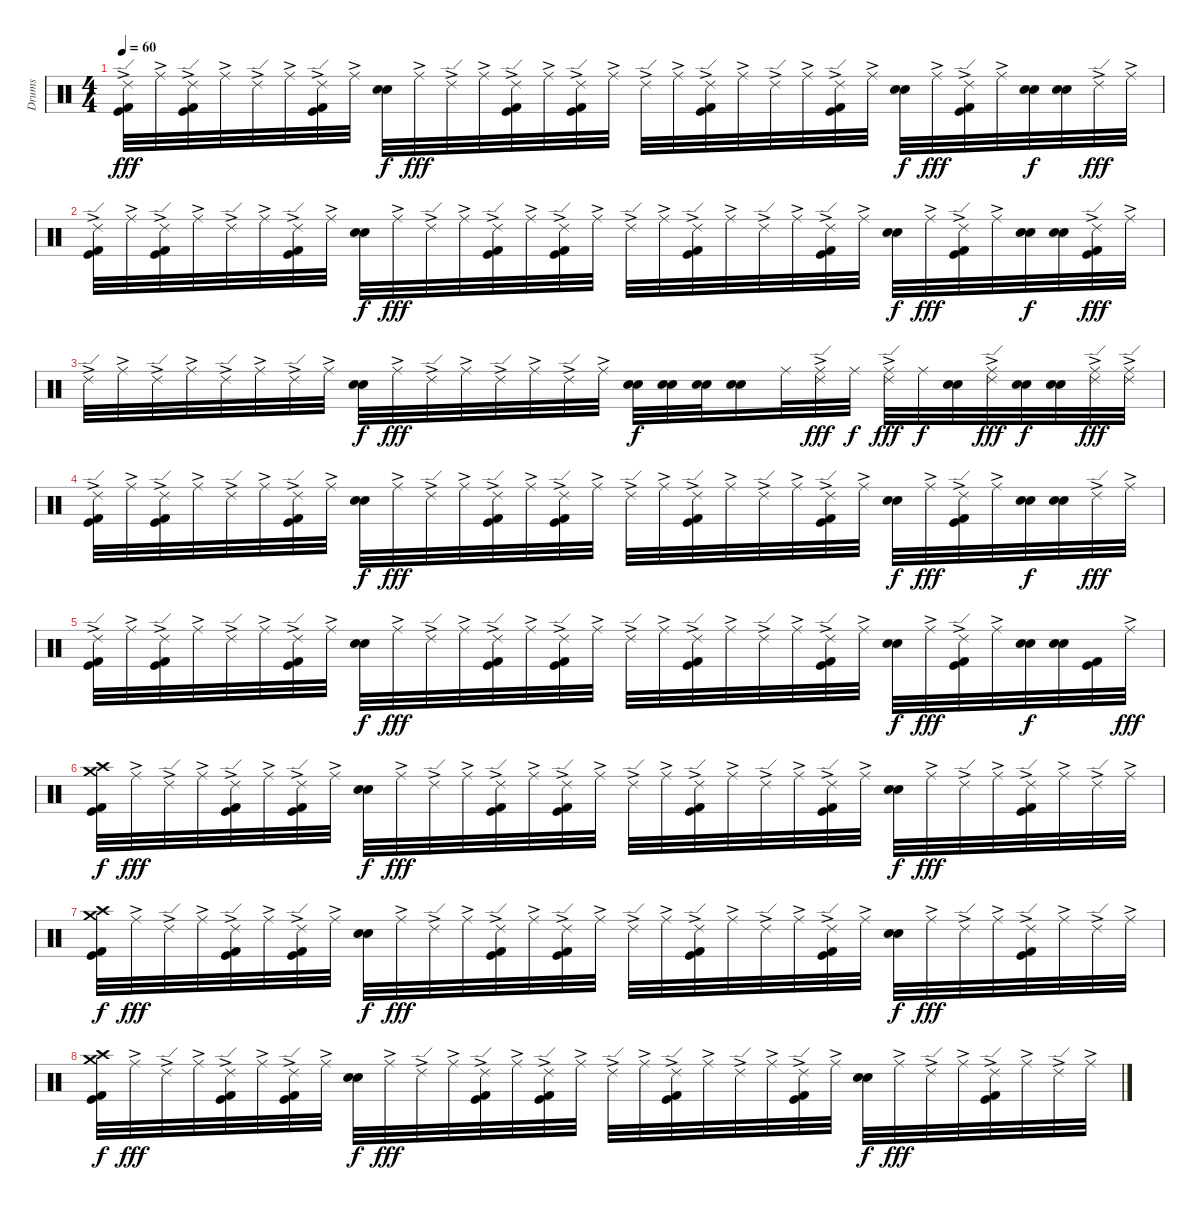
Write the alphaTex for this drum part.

\track ("Drums" "Drums") {instrument percussion}
\staff {score}
\articulation defaults
\ts (4 4)
\tempo 60
\clef neutral
\ks c
("Ride (edge) 2"{ac} "Kick (hit)" "Kick (hit) 2").32{dy fff} "Ride (middle)"{ac}.32 ("Ride (edge) 2"{ac} "Kick (hit)" "Kick (hit) 2").32 "Ride (middle)"{ac}.32 "Ride (edge) 2"{ac}.32 "Ride (middle)"{ac}.32 ("Ride (edge) 2"{ac} "Kick (hit)" "Kick (hit) 2").32 "Ride (middle)"{ac}.32 ("Snare (hit) 2" "Electric Snare (hit)").32{dy f} "Ride (middle)"{ac}.32{dy fff} "Ride (edge) 2"{ac}.32 "Ride (middle)"{ac}.32 ("Ride (edge) 2"{ac} "Kick (hit)" "Kick (hit) 2").32 "Ride (middle)"{ac}.32 ("Ride (edge) 2"{ac} "Kick (hit)" "Kick (hit) 2").32 "Ride (middle)"{ac}.32 "Ride (edge) 2"{ac}.32 "Ride (middle)"{ac}.32 ("Ride (edge) 2"{ac} "Kick (hit)" "Kick (hit) 2").32 "Ride (middle)"{ac}.32 "Ride (edge) 2"{ac}.32 "Ride (middle)"{ac}.32 ("Ride (edge) 2"{ac} "Kick (hit)" "Kick (hit) 2").32 "Ride (middle)"{ac}.32 ("Snare (hit) 2" "Electric Snare (hit)").32{dy f} "Ride (middle)"{ac}.32{dy fff} ("Ride (edge) 2"{ac} "Kick (hit)" "Kick (hit) 2").32 "Ride (middle)"{ac}.32 ("Snare (hit) 2" "Electric Snare (hit)").32{dy f} ("Snare (hit) 2" "Electric Snare (hit)").32 "Ride (edge) 2"{ac}.32{dy fff} "Ride (middle)"{ac}.32 |
("Ride (edge) 2"{ac} "Kick (hit)" "Kick (hit) 2").32 "Ride (middle)"{ac}.32 ("Ride (edge) 2"{ac} "Kick (hit)" "Kick (hit) 2").32 "Ride (middle)"{ac}.32 "Ride (edge) 2"{ac}.32 "Ride (middle)"{ac}.32 ("Ride (edge) 2"{ac} "Kick (hit)" "Kick (hit) 2").32 "Ride (middle)"{ac}.32 ("Snare (hit) 2" "Electric Snare (hit)").32{dy f} "Ride (middle)"{ac}.32{dy fff} "Ride (edge) 2"{ac}.32 "Ride (middle)"{ac}.32 ("Ride (edge) 2"{ac} "Kick (hit)" "Kick (hit) 2").32 "Ride (middle)"{ac}.32 ("Ride (edge) 2"{ac} "Kick (hit)" "Kick (hit) 2").32 "Ride (middle)"{ac}.32 "Ride (edge) 2"{ac}.32 "Ride (middle)"{ac}.32 ("Ride (edge) 2"{ac} "Kick (hit)" "Kick (hit) 2").32 "Ride (middle)"{ac}.32 "Ride (edge) 2"{ac}.32 "Ride (middle)"{ac}.32 ("Ride (edge) 2"{ac} "Kick (hit)" "Kick (hit) 2").32 "Ride (middle)"{ac}.32 ("Snare (hit) 2" "Electric Snare (hit)").32{dy f} "Ride (middle)"{ac}.32{dy fff} ("Ride (edge) 2"{ac} "Kick (hit)" "Kick (hit) 2").32 "Ride (middle)"{ac}.32 ("Snare (hit) 2" "Electric Snare (hit)").32{dy f} ("Snare (hit) 2" "Electric Snare (hit)").32 ("Ride (edge) 2"{ac} "Kick (hit)" "Kick (hit) 2").32{dy fff} "Ride (middle)"{ac}.32 |
"Ride (edge) 2"{ac}.32 "Ride (middle)"{ac}.32 "Ride (edge) 2"{ac}.32 "Ride (middle)"{ac}.32 "Ride (edge) 2"{ac}.32 "Ride (middle)"{ac}.32 "Ride (edge) 2"{ac}.32 "Ride (middle)"{ac}.32 ("Electric Snare (hit)" "Snare (hit) 2").32{dy f} "Ride (middle)"{ac}.32{dy fff} "Ride (edge) 2"{ac}.32 "Ride (middle)"{ac}.32 "Ride (edge) 2"{ac}.32 "Ride (middle)"{ac}.32 "Ride (edge) 2"{ac}.32 "Ride (middle)"{ac}.32 ("Snare (hit) 2" "Electric Snare (hit)").32{dy f} ("Snare (hit) 2" "Electric Snare (hit)").32 ("Snare (hit) 2" "Electric Snare (hit)").32 ("Snare (hit) 2" "Electric Snare (hit)").16 "Ride (middle)".32 ("Ride (edge) 2"{ac} "Ride (middle)"{ac}).32{dy fff} "Ride (middle)".32{dy f} ("Ride (edge) 2"{ac} "Ride (middle)"{ac}).32{dy fff} "Ride (middle)".32{dy f} ("Snare (hit) 2" "Electric Snare (hit)").32 ("Ride (edge) 2"{ac} "Ride (middle)"{ac}).32{dy fff} ("Snare (hit) 2" "Electric Snare (hit)").32{dy f} ("Snare (hit) 2" "Electric Snare (hit)").32 ("Ride (edge) 2"{ac} "Ride (middle)"{ac}).32{dy fff} ("Ride (edge) 2"{ac} "Ride (middle)"{ac}).32 |
("Ride (edge) 2"{ac} "Kick (hit)" "Kick (hit) 2").32 "Ride (middle)"{ac}.32 ("Ride (edge) 2"{ac} "Kick (hit)" "Kick (hit) 2").32 "Ride (middle)"{ac}.32 "Ride (edge) 2"{ac}.32 "Ride (middle)"{ac}.32 ("Ride (edge) 2"{ac} "Kick (hit)" "Kick (hit) 2").32 "Ride (middle)"{ac}.32 ("Snare (hit) 2" "Electric Snare (hit)").32{dy f} "Ride (middle)"{ac}.32{dy fff} "Ride (edge) 2"{ac}.32 "Ride (middle)"{ac}.32 ("Ride (edge) 2"{ac} "Kick (hit)" "Kick (hit) 2").32 "Ride (middle)"{ac}.32 ("Ride (edge) 2"{ac} "Kick (hit)" "Kick (hit) 2").32 "Ride (middle)"{ac}.32 "Ride (edge) 2"{ac}.32 "Ride (middle)"{ac}.32 ("Ride (edge) 2"{ac} "Kick (hit)" "Kick (hit) 2").32 "Ride (middle)"{ac}.32 "Ride (edge) 2"{ac}.32 "Ride (middle)"{ac}.32 ("Ride (edge) 2"{ac} "Kick (hit)" "Kick (hit) 2").32 "Ride (middle)"{ac}.32 ("Snare (hit) 2" "Electric Snare (hit)").32{dy f} "Ride (middle)"{ac}.32{dy fff} ("Ride (edge) 2"{ac} "Kick (hit)" "Kick (hit) 2").32 "Ride (middle)"{ac}.32 ("Snare (hit) 2" "Electric Snare (hit)").32{dy f} ("Snare (hit) 2" "Electric Snare (hit)").32 "Ride (edge) 2"{ac}.32{dy fff} "Ride (middle)"{ac}.32 |
("Ride (edge) 2"{ac} "Kick (hit)" "Kick (hit) 2").32 "Ride (middle)"{ac}.32 ("Ride (edge) 2"{ac} "Kick (hit)" "Kick (hit) 2").32 "Ride (middle)"{ac}.32 "Ride (edge) 2"{ac}.32 "Ride (middle)"{ac}.32 ("Ride (edge) 2"{ac} "Kick (hit)" "Kick (hit) 2").32 "Ride (middle)"{ac}.32 ("Snare (hit) 2" "Electric Snare (hit)").32{dy f} "Ride (middle)"{ac}.32{dy fff} "Ride (edge) 2"{ac}.32 "Ride (middle)"{ac}.32 ("Ride (edge) 2"{ac} "Kick (hit)" "Kick (hit) 2").32 "Ride (middle)"{ac}.32 ("Ride (edge) 2"{ac} "Kick (hit)" "Kick (hit) 2").32 "Ride (middle)"{ac}.32 "Ride (edge) 2"{ac}.32 "Ride (middle)"{ac}.32 ("Ride (edge) 2"{ac} "Kick (hit)" "Kick (hit) 2").32 "Ride (middle)"{ac}.32 "Ride (edge) 2"{ac}.32 "Ride (middle)"{ac}.32 ("Ride (edge) 2"{ac} "Kick (hit)" "Kick (hit) 2").32 "Ride (middle)"{ac}.32 ("Snare (hit) 2" "Electric Snare (hit)").32{dy f} "Ride (middle)"{ac}.32{dy fff} ("Ride (edge) 2"{ac} "Kick (hit)" "Kick (hit) 2").32 "Ride (middle)"{ac}.32 ("Snare (hit) 2" "Electric Snare (hit)").32{dy f} ("Snare (hit) 2" "Electric Snare (hit)").32 ("Kick (hit)" "Kick (hit) 2").32 "Ride (middle)"{ac}.32{dy fff} |
("Crash high (hit)" "Crash medium (hit)" "Kick (hit)" "Kick (hit) 2").32{dy f} "Ride (middle)"{ac}.32{dy fff} "Ride (edge) 2"{ac}.32 "Ride (middle)"{ac}.32 ("Ride (edge) 2"{ac} "Kick (hit)" "Kick (hit) 2").32 "Ride (middle)"{ac}.32 ("Ride (edge) 2"{ac} "Kick (hit)" "Kick (hit) 2").32 "Ride (middle)"{ac}.32 ("Snare (hit) 2" "Electric Snare (hit)").32{dy f} "Ride (middle)"{ac}.32{dy fff} "Ride (edge) 2"{ac}.32 "Ride (middle)"{ac}.32 ("Ride (edge) 2"{ac} "Kick (hit)" "Kick (hit) 2").32 "Ride (middle)"{ac}.32 ("Ride (edge) 2"{ac} "Kick (hit)" "Kick (hit) 2").32 "Ride (middle)"{ac}.32 "Ride (edge) 2"{ac}.32 "Ride (middle)"{ac}.32 ("Ride (edge) 2"{ac} "Kick (hit)" "Kick (hit) 2").32 "Ride (middle)"{ac}.32 "Ride (edge) 2"{ac}.32 "Ride (middle)"{ac}.32 ("Ride (edge) 2"{ac} "Kick (hit)" "Kick (hit) 2").32 "Ride (middle)"{ac}.32 ("Electric Snare (hit)" "Snare (hit) 2").32{dy f} "Ride (middle)"{ac}.32{dy fff} "Ride (edge) 2"{ac}.32 "Ride (middle)"{ac}.32 ("Ride (edge) 2"{ac} "Kick (hit)" "Kick (hit) 2").32 "Ride (middle)"{ac}.32 "Ride (edge) 2"{ac}.32 "Ride (middle)"{ac}.32 |
("Crash high (hit)" "Crash medium (hit)" "Kick (hit)" "Kick (hit) 2").32{dy f} "Ride (middle)"{ac}.32{dy fff} "Ride (edge) 2"{ac}.32 "Ride (middle)"{ac}.32 ("Ride (edge) 2"{ac} "Kick (hit)" "Kick (hit) 2").32 "Ride (middle)"{ac}.32 ("Ride (edge) 2"{ac} "Kick (hit)" "Kick (hit) 2").32 "Ride (middle)"{ac}.32 ("Snare (hit) 2" "Electric Snare (hit)").32{dy f} "Ride (middle)"{ac}.32{dy fff} "Ride (edge) 2"{ac}.32 "Ride (middle)"{ac}.32 ("Ride (edge) 2"{ac} "Kick (hit)" "Kick (hit) 2").32 "Ride (middle)"{ac}.32 ("Ride (edge) 2"{ac} "Kick (hit)" "Kick (hit) 2").32 "Ride (middle)"{ac}.32 "Ride (edge) 2"{ac}.32 "Ride (middle)"{ac}.32 ("Ride (edge) 2"{ac} "Kick (hit)" "Kick (hit) 2").32 "Ride (middle)"{ac}.32 "Ride (edge) 2"{ac}.32 "Ride (middle)"{ac}.32 ("Ride (edge) 2"{ac} "Kick (hit)" "Kick (hit) 2").32 "Ride (middle)"{ac}.32 ("Electric Snare (hit)" "Snare (hit) 2").32{dy f} "Ride (middle)"{ac}.32{dy fff} "Ride (edge) 2"{ac}.32 "Ride (middle)"{ac}.32 ("Ride (edge) 2"{ac} "Kick (hit)" "Kick (hit) 2").32 "Ride (middle)"{ac}.32 "Ride (edge) 2"{ac}.32 "Ride (middle)"{ac}.32 |
("Crash high (hit)" "Crash medium (hit)" "Kick (hit)" "Kick (hit) 2").32{dy f} "Ride (middle)"{ac}.32{dy fff} "Ride (edge) 2"{ac}.32 "Ride (middle)"{ac}.32 ("Ride (edge) 2"{ac} "Kick (hit)" "Kick (hit) 2").32 "Ride (middle)"{ac}.32 ("Ride (edge) 2"{ac} "Kick (hit)" "Kick (hit) 2").32 "Ride (middle)"{ac}.32 ("Snare (hit) 2" "Electric Snare (hit)").32{dy f} "Ride (middle)"{ac}.32{dy fff} "Ride (edge) 2"{ac}.32 "Ride (middle)"{ac}.32 ("Ride (edge) 2"{ac} "Kick (hit)" "Kick (hit) 2").32 "Ride (middle)"{ac}.32 ("Ride (edge) 2"{ac} "Kick (hit)" "Kick (hit) 2").32 "Ride (middle)"{ac}.32 "Ride (edge) 2"{ac}.32 "Ride (middle)"{ac}.32 ("Ride (edge) 2"{ac} "Kick (hit)" "Kick (hit) 2").32 "Ride (middle)"{ac}.32 "Ride (edge) 2"{ac}.32 "Ride (middle)"{ac}.32 ("Ride (edge) 2"{ac} "Kick (hit)" "Kick (hit) 2").32 "Ride (middle)"{ac}.32 ("Electric Snare (hit)" "Snare (hit) 2").32{dy f} "Ride (middle)"{ac}.32{dy fff} "Ride (edge) 2"{ac}.32 "Ride (middle)"{ac}.32 ("Ride (edge) 2"{ac} "Kick (hit)" "Kick (hit) 2").32 "Ride (middle)"{ac}.32 "Ride (edge) 2"{ac}.32 "Ride (middle)"{ac}.32
